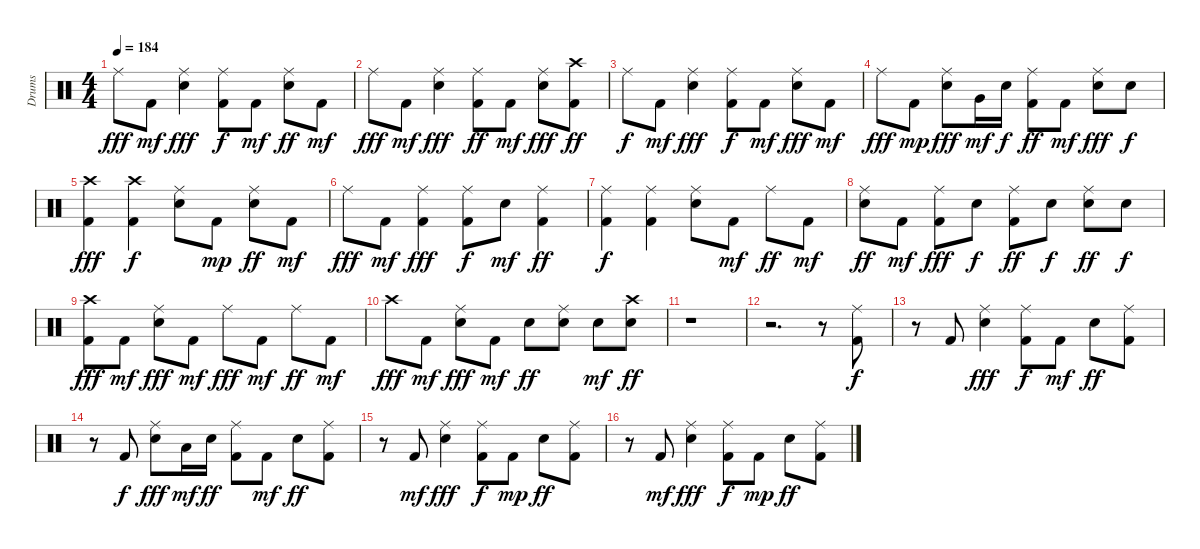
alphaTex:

\track ("Drums" "Drums") {instrument percussion}
\staff {score}
\articulation defaults
\ts (4 4)
\tempo 184
\clef neutral
\ks c "Ride (middle)".8{dy fff} "Kick (hit) 2".8{dy mf}
("Snare (hit) 2" "Ride (middle)").4{dy fff} ("Kick (hit) 2" "Ride (middle)").8{dy f} "Kick (hit) 2".8{dy mf} ("Snare (hit) 2" "Ride (middle)").8{dy ff} "Kick (hit) 2".8{dy mf} |
"Ride (middle)".8{dy fff} "Kick (hit) 2".8{dy mf} ("Snare (hit) 2" "Ride (middle)").4{dy fff} ("Kick (hit) 2" "Ride (middle)").8{dy ff} "Kick (hit) 2".8{dy mf} ("Snare (hit) 2" "Ride (middle)").8{dy fff} ("Kick (hit) 2" "Crash high (hit)").8{dy ff} |
"Ride (middle)".8{dy f} "Kick (hit) 2".8{dy mf} ("Snare (hit) 2" "Ride (middle)").4{dy fff} ("Kick (hit) 2" "Ride (middle)").8{dy f} "Kick (hit) 2".8{dy mf} ("Snare (hit) 2" "Ride (middle)").8{dy fff} "Kick (hit) 2".8{dy mf} |
"Ride (middle)".8{dy fff} "Kick (hit) 2".8{dy mp} ("Snare (hit) 2" "Ride (middle)").8{dy fff} "Very Low Tom (hit)".16{dy mf} "Snare (hit) 2".16{dy f} ("Kick (hit) 2" "Ride (middle)").8{dy ff} "Kick (hit) 2".8{dy mf} ("Snare (hit) 2" "Ride (middle)").8{dy fff} "Snare (hit) 2".8{dy f} |
("Kick (hit) 2" "Crash high (hit)").4{dy fff} ("Kick (hit) 2" "Crash high (hit)").4{dy f} ("Snare (hit) 2" "Ride (middle)").8 "Kick (hit) 2".8{dy mp} ("Snare (hit) 2" "Ride (middle)").8{dy ff} "Kick (hit) 2".8{dy mf} |
"Ride (middle)".8{dy fff} "Kick (hit) 2".8{dy mf} ("Kick (hit) 2" "Ride (middle)").4{dy fff} ("Kick (hit) 2" "Ride (middle)").8{dy f} "Snare (hit) 2".8{dy mf} ("Kick (hit) 2" "Ride (middle)").4{dy ff} |
("Kick (hit) 2" "Ride (middle)").4{dy f} ("Kick (hit) 2" "Ride (middle)").4 ("Snare (hit) 2" "Ride (middle)").8 "Kick (hit) 2".8{dy mf} "Ride (middle)".8{dy ff} "Kick (hit) 2".8{dy mf} |
("Snare (hit) 2" "Ride (middle)").8{dy ff} "Kick (hit) 2".8{dy mf} ("Kick (hit) 2" "Ride (middle)").8{dy fff} "Snare (hit) 2".8{dy f} ("Kick (hit) 2" "Ride (middle)").8{dy ff} "Snare (hit) 2".8{dy f} ("Snare (hit) 2" "Ride (middle)").8{dy ff} "Snare (hit) 2".8{dy f} |
("Kick (hit) 2" "Crash high (hit)").8{dy fff} "Kick (hit) 2".8{dy mf} ("Snare (hit) 2" "Ride (middle)").8{dy fff} "Kick (hit) 2".8{dy mf} "Ride (middle)".8{dy fff} "Kick (hit) 2".8{dy mf} "Ride (middle)".8{dy ff} "Kick (hit) 2".8{dy mf} |
"Crash high (hit)".8{dy fff} "Kick (hit) 2".8{dy mf} ("Snare (hit) 2" "Ride (middle)").8{dy fff} "Kick (hit) 2".8{dy mf} "Snare (hit) 2".8{dy ff} ("Snare (hit) 2" "Ride (middle)").8 "Snare (hit) 2".8{dy mf} ("Snare (hit) 2" "Crash high (hit)").8{dy ff} |
r.1 |
r.2{d} r.8 ("Kick (hit) 2" "Ride (middle)").8{dy f} |
r.8 "Kick (hit) 2".8 ("Snare (hit) 2" "Ride (middle)").4{dy fff} ("Kick (hit) 2" "Ride (middle)").8{dy f} "Kick (hit) 2".8{dy mf} "Snare (hit) 2".8{dy ff} ("Kick (hit) 2" "Ride (middle)").8 |
r.8 "Kick (hit) 2".8{dy f} ("Snare (hit) 2" "Ride (middle)").8{dy fff} "Low Floor Tom (hit)".16{dy mf} "Snare (hit) 2".16{dy ff} ("Kick (hit) 2" "Ride (middle)").8 "Kick (hit) 2".8{dy mf} "Snare (hit) 2".8{dy ff} ("Kick (hit) 2" "Ride (middle)").8 |
r.8 "Kick (hit) 2".8{dy mf} ("Snare (hit) 2" "Ride (middle)").4{dy fff} ("Kick (hit) 2" "Ride (middle)").8{dy f} "Kick (hit) 2".8{dy mp} "Snare (hit) 2".8{dy ff} ("Kick (hit) 2" "Ride (middle)").8 |
r.8 "Kick (hit) 2".8{dy mf} ("Snare (hit) 2" "Ride (middle)").4{dy fff} ("Kick (hit) 2" "Ride (middle)").8{dy f} "Kick (hit) 2".8{dy mp} "Snare (hit) 2".8{dy ff} ("Kick (hit) 2" "Ride (middle)").8
